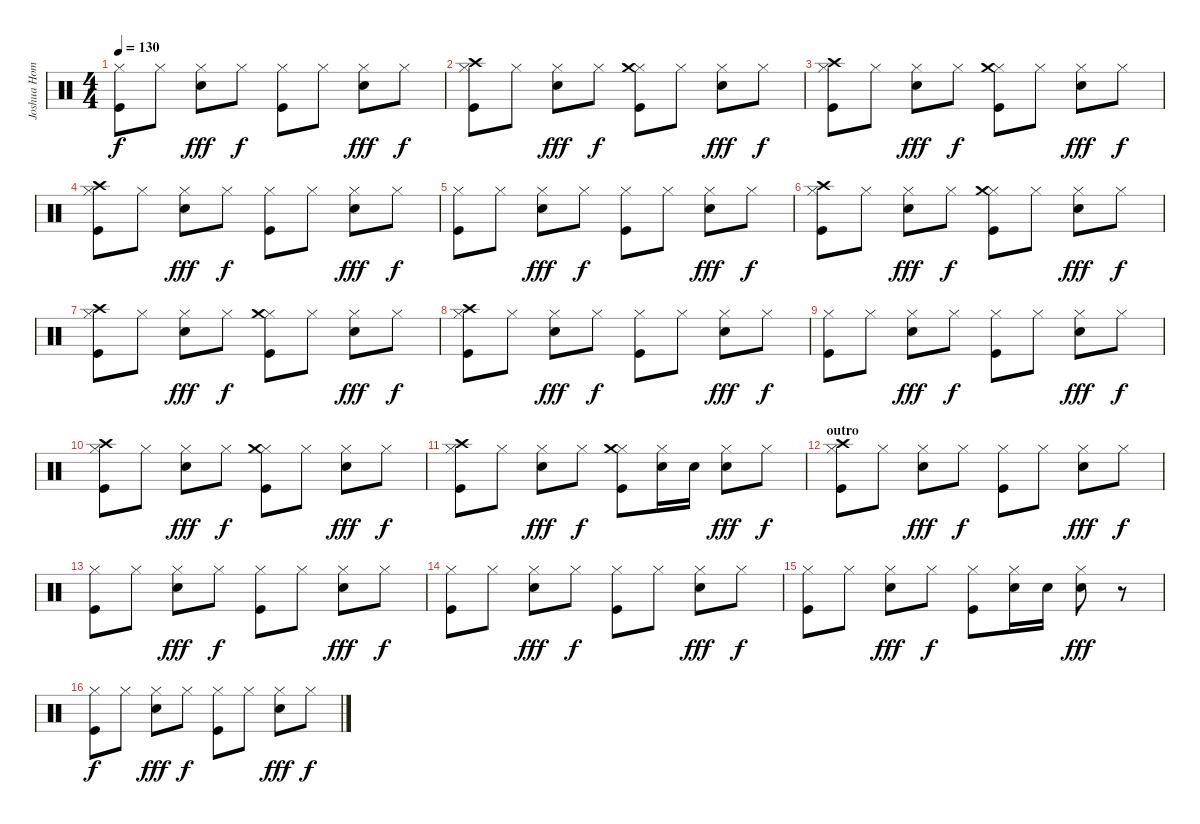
\track ("Joshua Homme - drums" "Joshua Hom") {instrument percussion}
\staff {score}
\articulation defaults
\ts (4 4)
\tempo 130
\clef neutral
\ks c
("Hi-Hat (closed)" "Kick (hit)").8{dy f} "Hi-Hat (closed)".8 ("Hi-Hat (closed)" "Electric Snare (hit)").8{dy fff} "Hi-Hat (closed)".8{dy f} ("Hi-Hat (closed)" "Kick (hit)").8 "Hi-Hat (closed)".8 ("Hi-Hat (closed)" "Electric Snare (hit)").8{dy fff} "Hi-Hat (closed)".8{dy f} |
("Hi-Hat (closed)" "Kick (hit)" "Crash high (hit)").8 "Hi-Hat (closed)".8 ("Hi-Hat (closed)" "Electric Snare (hit)").8{dy fff} "Hi-Hat (closed)".8{dy f} ("Hi-Hat (closed)" "Kick (hit)" "Crash medium (hit)").8 "Hi-Hat (closed)".8 ("Hi-Hat (closed)" "Electric Snare (hit)").8{dy fff} "Hi-Hat (closed)".8{dy f} |
("Hi-Hat (closed)" "Kick (hit)" "Crash high (hit)").8 "Hi-Hat (closed)".8 ("Hi-Hat (closed)" "Electric Snare (hit)").8{dy fff} "Hi-Hat (closed)".8{dy f} ("Hi-Hat (closed)" "Kick (hit)" "Crash medium (hit)").8 "Hi-Hat (closed)".8 ("Hi-Hat (closed)" "Electric Snare (hit)").8{dy fff} "Hi-Hat (closed)".8{dy f} |
("Hi-Hat (closed)" "Kick (hit)" "Crash high (hit)").8 "Hi-Hat (closed)".8 ("Hi-Hat (closed)" "Electric Snare (hit)").8{dy fff} "Hi-Hat (closed)".8{dy f} ("Hi-Hat (closed)" "Kick (hit)").8 "Hi-Hat (closed)".8 ("Hi-Hat (closed)" "Electric Snare (hit)").8{dy fff} "Hi-Hat (closed)".8{dy f} |
("Hi-Hat (closed)" "Kick (hit)").8 "Hi-Hat (closed)".8 ("Hi-Hat (closed)" "Electric Snare (hit)").8{dy fff} "Hi-Hat (closed)".8{dy f} ("Hi-Hat (closed)" "Kick (hit)").8 "Hi-Hat (closed)".8 ("Hi-Hat (closed)" "Electric Snare (hit)").8{dy fff} "Hi-Hat (closed)".8{dy f} |
("Hi-Hat (closed)" "Kick (hit)" "Crash high (hit)").8 "Hi-Hat (closed)".8 ("Hi-Hat (closed)" "Electric Snare (hit)").8{dy fff} "Hi-Hat (closed)".8{dy f} ("Hi-Hat (closed)" "Kick (hit)" "Crash medium (hit)").8 "Hi-Hat (closed)".8 ("Hi-Hat (closed)" "Electric Snare (hit)").8{dy fff} "Hi-Hat (closed)".8{dy f} |
("Hi-Hat (closed)" "Kick (hit)" "Crash high (hit)").8 "Hi-Hat (closed)".8 ("Hi-Hat (closed)" "Electric Snare (hit)").8{dy fff} "Hi-Hat (closed)".8{dy f} ("Hi-Hat (closed)" "Kick (hit)" "Crash medium (hit)").8 "Hi-Hat (closed)".8 ("Hi-Hat (closed)" "Electric Snare (hit)").8{dy fff} "Hi-Hat (closed)".8{dy f} |
("Hi-Hat (closed)" "Kick (hit)" "Crash high (hit)").8 "Hi-Hat (closed)".8 ("Hi-Hat (closed)" "Electric Snare (hit)").8{dy fff} "Hi-Hat (closed)".8{dy f} ("Hi-Hat (closed)" "Kick (hit)").8 "Hi-Hat (closed)".8 ("Hi-Hat (closed)" "Electric Snare (hit)").8{dy fff} "Hi-Hat (closed)".8{dy f} |
("Hi-Hat (closed)" "Kick (hit)").8 "Hi-Hat (closed)".8 ("Hi-Hat (closed)" "Electric Snare (hit)").8{dy fff} "Hi-Hat (closed)".8{dy f} ("Hi-Hat (closed)" "Kick (hit)").8 "Hi-Hat (closed)".8 ("Hi-Hat (closed)" "Electric Snare (hit)").8{dy fff} "Hi-Hat (closed)".8{dy f} |
("Hi-Hat (closed)" "Kick (hit)" "Crash high (hit)").8 "Hi-Hat (closed)".8 ("Hi-Hat (closed)" "Electric Snare (hit)").8{dy fff} "Hi-Hat (closed)".8{dy f} ("Hi-Hat (closed)" "Kick (hit)" "Crash medium (hit)").8 "Hi-Hat (closed)".8 ("Hi-Hat (closed)" "Electric Snare (hit)").8{dy fff} "Hi-Hat (closed)".8{dy f} |
("Hi-Hat (closed)" "Kick (hit)" "Crash high (hit)").8 "Hi-Hat (closed)".8 ("Hi-Hat (closed)" "Electric Snare (hit)").8{dy fff} "Hi-Hat (closed)".8{dy f} ("Hi-Hat (closed)" "Kick (hit)" "Crash medium (hit)").8 ("Hi-Hat (closed)" "Electric Snare (hit)").16 "Electric Snare (hit)".16 ("Hi-Hat (closed)" "Electric Snare (hit)").8{dy fff} "Hi-Hat (closed)".8{dy f} |
\section ("" "outro")
("Hi-Hat (closed)" "Kick (hit)" "Crash high (hit)").8 "Hi-Hat (closed)".8 ("Hi-Hat (closed)" "Electric Snare (hit)").8{dy fff} "Hi-Hat (closed)".8{dy f} ("Hi-Hat (closed)" "Kick (hit)").8 "Hi-Hat (closed)".8 ("Hi-Hat (closed)" "Electric Snare (hit)").8{dy fff} "Hi-Hat (closed)".8{dy f} |
("Hi-Hat (closed)" "Kick (hit)").8 "Hi-Hat (closed)".8 ("Hi-Hat (closed)" "Electric Snare (hit)").8{dy fff} "Hi-Hat (closed)".8{dy f} ("Hi-Hat (closed)" "Kick (hit)").8 "Hi-Hat (closed)".8 ("Hi-Hat (closed)" "Electric Snare (hit)").8{dy fff} "Hi-Hat (closed)".8{dy f} |
("Hi-Hat (closed)" "Kick (hit)").8 "Hi-Hat (closed)".8 ("Hi-Hat (closed)" "Electric Snare (hit)").8{dy fff} "Hi-Hat (closed)".8{dy f} ("Hi-Hat (closed)" "Kick (hit)").8 "Hi-Hat (closed)".8 ("Hi-Hat (closed)" "Electric Snare (hit)").8{dy fff} "Hi-Hat (closed)".8{dy f} |
("Hi-Hat (closed)" "Kick (hit)").8 "Hi-Hat (closed)".8 ("Hi-Hat (closed)" "Electric Snare (hit)").8{dy fff} "Hi-Hat (closed)".8{dy f} ("Hi-Hat (closed)" "Kick (hit)").8 ("Hi-Hat (closed)" "Electric Snare (hit)").16 "Electric Snare (hit)".16 ("Hi-Hat (closed)" "Electric Snare (hit)").8{dy fff} r.8 |
("Hi-Hat (closed)" "Kick (hit)").8{dy f} "Hi-Hat (closed)".8 ("Hi-Hat (closed)" "Electric Snare (hit)").8{dy fff} "Hi-Hat (closed)".8{dy f} ("Hi-Hat (closed)" "Kick (hit)").8 "Hi-Hat (closed)".8 ("Hi-Hat (closed)" "Electric Snare (hit)").8{dy fff} "Hi-Hat (closed)".8{dy f}
